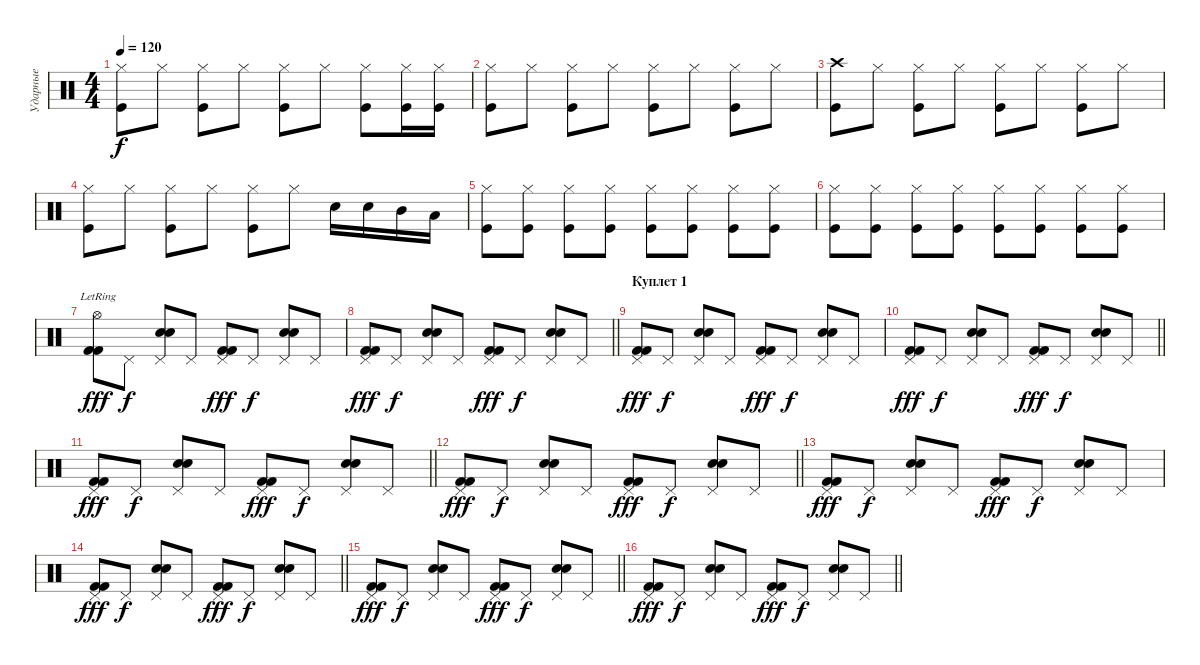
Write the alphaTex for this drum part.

\track ("Ударные" "Ударные") {solo instrument percussion}
\staff {score}
\articulation defaults
\ts (4 4)
\tempo 120
\clef neutral
\ks c
("Kick (hit)" "Hi-Hat (closed)").8{dy f} "Hi-Hat (closed)".8 ("Kick (hit)" "Hi-Hat (closed)").8 "Hi-Hat (closed)".8 ("Kick (hit)" "Hi-Hat (closed)").8 "Hi-Hat (closed)".8 ("Kick (hit)" "Hi-Hat (closed)").8 ("Kick (hit)" "Hi-Hat (closed)").16 ("Kick (hit)" "Hi-Hat (closed)").16 |
("Kick (hit)" "Hi-Hat (closed)").8 "Hi-Hat (closed)".8 ("Kick (hit)" "Hi-Hat (closed)").8 "Hi-Hat (closed)".8 ("Kick (hit)" "Hi-Hat (closed)").8 "Hi-Hat (closed)".8 ("Kick (hit)" "Hi-Hat (closed)").8 "Hi-Hat (closed)".8 |
("Kick (hit)" "Crash high (hit)").8 "Hi-Hat (closed)".8 ("Kick (hit)" "Hi-Hat (closed)").8 "Hi-Hat (closed)".8 ("Kick (hit)" "Hi-Hat (closed)").8 "Hi-Hat (closed)".8 ("Kick (hit)" "Hi-Hat (closed)").8 "Hi-Hat (closed)".8 |
("Kick (hit)" "Hi-Hat (closed)").8 "Hi-Hat (closed)".8 ("Kick (hit)" "Hi-Hat (closed)").8 "Hi-Hat (closed)".8 ("Kick (hit)" "Hi-Hat (closed)").8 "Hi-Hat (closed)".8 "Electric Snare (hit)".16 "Electric Snare (hit)".16 "Mid Tom (hit)".16 "Low Tom (hit)".16 |
("Kick (hit)" "Hi-Hat (closed)").8 ("Kick (hit)" "Hi-Hat (closed)").8 ("Kick (hit)" "Hi-Hat (closed)").8 ("Kick (hit)" "Hi-Hat (closed)").8 ("Kick (hit)" "Hi-Hat (closed)").8 ("Kick (hit)" "Hi-Hat (closed)").8 ("Kick (hit)" "Hi-Hat (closed)").8 ("Kick (hit)" "Hi-Hat (closed)").8 |
("Kick (hit)" "Hi-Hat (closed)").8 ("Kick (hit)" "Hi-Hat (closed)").8 ("Kick (hit)" "Hi-Hat (closed)").8 ("Kick (hit)" "Hi-Hat (closed)").8 ("Kick (hit)" "Hi-Hat (closed)").8 ("Kick (hit)" "Hi-Hat (closed)").8 ("Kick (hit)" "Hi-Hat (closed)").8 ("Kick (hit)" "Hi-Hat (closed)").8 |
("Kick (hit) 2" "Kick (hit) 2" "Hi-Hat (open)"{lr}).8{dy fff} "Pedal Hi-Hat (hit)".8{dy f} ("Electric Snare (hit)" "Electric Snare (hit)" "Pedal Hi-Hat (hit)").8 "Pedal Hi-Hat (hit)".8 ("Kick (hit) 2" "Kick (hit) 2" "Pedal Hi-Hat (hit)").8{dy fff} "Pedal Hi-Hat (hit)".8{dy f} ("Electric Snare (hit)" "Electric Snare (hit)" "Pedal Hi-Hat (hit)").8 "Pedal Hi-Hat (hit)".8 |
\barLineRight lightlight
("Kick (hit) 2" "Kick (hit) 2" "Pedal Hi-Hat (hit)").8{dy fff} "Pedal Hi-Hat (hit)".8{dy f} ("Electric Snare (hit)" "Electric Snare (hit)" "Pedal Hi-Hat (hit)").8 "Pedal Hi-Hat (hit)".8 ("Kick (hit) 2" "Kick (hit) 2" "Pedal Hi-Hat (hit)").8{dy fff} "Pedal Hi-Hat (hit)".8{dy f} ("Electric Snare (hit)" "Electric Snare (hit)" "Pedal Hi-Hat (hit)").8 "Pedal Hi-Hat (hit)".8 |
\section ("" "Куплет 1")
("Kick (hit) 2" "Kick (hit) 2" "Pedal Hi-Hat (hit)").8{dy fff} "Pedal Hi-Hat (hit)".8{dy f} ("Electric Snare (hit)" "Electric Snare (hit)" "Pedal Hi-Hat (hit)").8 "Pedal Hi-Hat (hit)".8 ("Kick (hit) 2" "Kick (hit) 2" "Pedal Hi-Hat (hit)").8{dy fff} "Pedal Hi-Hat (hit)".8{dy f} ("Electric Snare (hit)" "Electric Snare (hit)" "Pedal Hi-Hat (hit)").8 "Pedal Hi-Hat (hit)".8 |
\barLineRight lightlight
("Kick (hit) 2" "Kick (hit) 2" "Pedal Hi-Hat (hit)").8{dy fff} "Pedal Hi-Hat (hit)".8{dy f} ("Electric Snare (hit)" "Electric Snare (hit)" "Pedal Hi-Hat (hit)").8 "Pedal Hi-Hat (hit)".8 ("Kick (hit) 2" "Kick (hit) 2" "Pedal Hi-Hat (hit)").8{dy fff} "Pedal Hi-Hat (hit)".8{dy f} ("Electric Snare (hit)" "Electric Snare (hit)" "Pedal Hi-Hat (hit)").8 "Pedal Hi-Hat (hit)".8 |
\barLineRight lightlight
("Kick (hit) 2" "Kick (hit) 2" "Pedal Hi-Hat (hit)").8{dy fff} "Pedal Hi-Hat (hit)".8{dy f} ("Electric Snare (hit)" "Electric Snare (hit)" "Pedal Hi-Hat (hit)").8 "Pedal Hi-Hat (hit)".8 ("Kick (hit) 2" "Kick (hit) 2" "Pedal Hi-Hat (hit)").8{dy fff} "Pedal Hi-Hat (hit)".8{dy f} ("Electric Snare (hit)" "Electric Snare (hit)" "Pedal Hi-Hat (hit)").8 "Pedal Hi-Hat (hit)".8 |
\barLineRight lightlight
("Kick (hit) 2" "Kick (hit) 2" "Pedal Hi-Hat (hit)").8{dy fff} "Pedal Hi-Hat (hit)".8{dy f} ("Electric Snare (hit)" "Electric Snare (hit)" "Pedal Hi-Hat (hit)").8 "Pedal Hi-Hat (hit)".8 ("Kick (hit) 2" "Kick (hit) 2" "Pedal Hi-Hat (hit)").8{dy fff} "Pedal Hi-Hat (hit)".8{dy f} ("Electric Snare (hit)" "Electric Snare (hit)" "Pedal Hi-Hat (hit)").8 "Pedal Hi-Hat (hit)".8 |
("Kick (hit) 2" "Kick (hit) 2" "Pedal Hi-Hat (hit)").8{dy fff} "Pedal Hi-Hat (hit)".8{dy f} ("Electric Snare (hit)" "Electric Snare (hit)" "Pedal Hi-Hat (hit)").8 "Pedal Hi-Hat (hit)".8 ("Kick (hit) 2" "Kick (hit) 2" "Pedal Hi-Hat (hit)").8{dy fff} "Pedal Hi-Hat (hit)".8{dy f} ("Electric Snare (hit)" "Electric Snare (hit)" "Pedal Hi-Hat (hit)").8 "Pedal Hi-Hat (hit)".8 |
\barLineRight lightlight
("Kick (hit) 2" "Kick (hit) 2" "Pedal Hi-Hat (hit)").8{dy fff} "Pedal Hi-Hat (hit)".8{dy f} ("Electric Snare (hit)" "Electric Snare (hit)" "Pedal Hi-Hat (hit)").8 "Pedal Hi-Hat (hit)".8 ("Kick (hit) 2" "Kick (hit) 2" "Pedal Hi-Hat (hit)").8{dy fff} "Pedal Hi-Hat (hit)".8{dy f} ("Electric Snare (hit)" "Electric Snare (hit)" "Pedal Hi-Hat (hit)").8 "Pedal Hi-Hat (hit)".8 |
\barLineRight lightlight
("Kick (hit) 2" "Kick (hit) 2" "Pedal Hi-Hat (hit)").8{dy fff} "Pedal Hi-Hat (hit)".8{dy f} ("Electric Snare (hit)" "Electric Snare (hit)" "Pedal Hi-Hat (hit)").8 "Pedal Hi-Hat (hit)".8 ("Kick (hit) 2" "Kick (hit) 2" "Pedal Hi-Hat (hit)").8{dy fff} "Pedal Hi-Hat (hit)".8{dy f} ("Electric Snare (hit)" "Electric Snare (hit)" "Pedal Hi-Hat (hit)").8 "Pedal Hi-Hat (hit)".8 |
\barLineRight lightlight
("Kick (hit) 2" "Kick (hit) 2" "Pedal Hi-Hat (hit)").8{dy fff} "Pedal Hi-Hat (hit)".8{dy f} ("Electric Snare (hit)" "Electric Snare (hit)" "Pedal Hi-Hat (hit)").8 "Pedal Hi-Hat (hit)".8 ("Kick (hit) 2" "Kick (hit) 2" "Pedal Hi-Hat (hit)").8{dy fff} "Pedal Hi-Hat (hit)".8{dy f} ("Electric Snare (hit)" "Electric Snare (hit)" "Pedal Hi-Hat (hit)").8 "Pedal Hi-Hat (hit)".8
